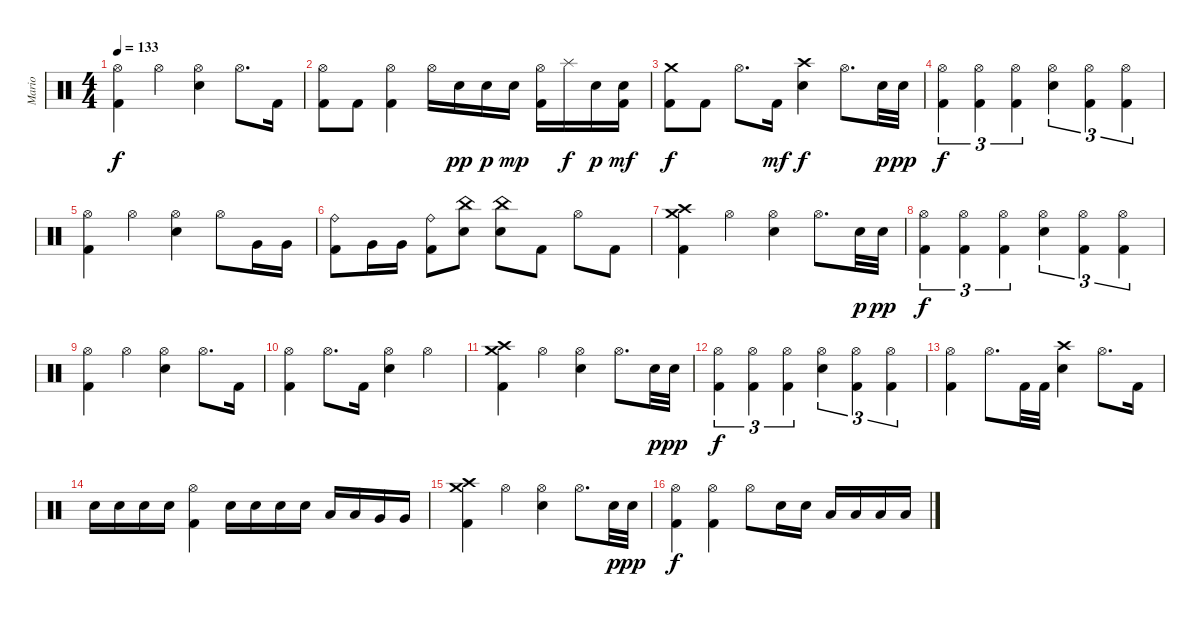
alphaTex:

\track ("Mario" "Mario") {instrument percussion}
\staff {score}
\articulation defaults
\ts (4 4)
\tempo 133
\clef neutral
\ks c
("Hi-Hat (open)" "Kick (hit) 2").4{dy f} "Hi-Hat (open)".4 ("Hi-Hat (open)" "Electric Snare (hit)").4 "Hi-Hat (open)".8{d} "Kick (hit) 2".16 |
("Hi-Hat (open)" "Kick (hit) 2").8 "Kick (hit) 2".8 ("Hi-Hat (open)" "Kick (hit) 2").4 "Hi-Hat (open)".16 "Electric Snare (hit)".16{dy pp} "Electric Snare (hit)".16{dy p} "Electric Snare (hit)".16{dy mp} ("Hi-Hat (open)" "Kick (hit) 2").16 "Splash (hit)".16{dy f} "Electric Snare (hit)".16{dy p} ("Electric Snare (hit)" "Kick (hit) 2").16{dy mf} |
("Crash medium (hit)" "Kick (hit) 2").8{dy f} "Kick (hit) 2".8 "Hi-Hat (open)".8{d} "Kick (hit) 2".16{dy mf} ("Crash high (hit)" "Electric Snare (hit)").4{dy f} "Hi-Hat (open)".8{d} "Electric Snare (hit)".32{dy p} "Electric Snare (hit)".32{dy pp} |
("Hi-Hat (open)" "Kick (hit) 2").4{tu (3 2) dy f} ("Hi-Hat (open)" "Kick (hit) 2").4{tu (3 2)} ("Hi-Hat (open)" "Kick (hit) 2").4{tu (3 2)} ("Hi-Hat (open)" "Electric Snare (hit)").4{tu (3 2)} ("Hi-Hat (open)" "Kick (hit) 2").4{tu (3 2)} ("Hi-Hat (open)" "Kick (hit) 2").4{tu (3 2)} |
("Hi-Hat (open)" "Kick (hit) 2").4 "Hi-Hat (open)".4 ("Hi-Hat (open)" "Electric Snare (hit)").4 "Hi-Hat (open)".8 "Very Low Tom (hit)".16 "Very Low Tom (hit)".16 |
("Ride (bell)" "Kick (hit) 2").8 "Very Low Tom (hit)".16 "Very Low Tom (hit)".16 ("Ride (bell)" "Kick (hit) 2").8 ("China (hit)" "Electric Snare (hit)").8 ("China (hit)" "Electric Snare (hit)").8 "Kick (hit) 2".8 "Hi-Hat (open)".8 "Kick (hit) 2".8 |
("Crash medium (hit)" "Crash high (hit)" "Kick (hit) 2").4 "Hi-Hat (open)".4 ("Hi-Hat (open)" "Electric Snare (hit)").4 "Hi-Hat (open)".8{d} "Electric Snare (hit)".32{dy p} "Electric Snare (hit)".32{dy pp} |
("Hi-Hat (open)" "Kick (hit) 2").4{tu (3 2) dy f} ("Hi-Hat (open)" "Kick (hit) 2").4{tu (3 2)} ("Hi-Hat (open)" "Kick (hit) 2").4{tu (3 2)} ("Hi-Hat (open)" "Electric Snare (hit)").4{tu (3 2)} ("Hi-Hat (open)" "Kick (hit) 2").4{tu (3 2)} ("Hi-Hat (open)" "Kick (hit) 2").4{tu (3 2)} |
("Hi-Hat (open)" "Kick (hit) 2").4 "Hi-Hat (open)".4 ("Hi-Hat (open)" "Electric Snare (hit)").4 "Hi-Hat (open)".8{d} "Kick (hit) 2".16 |
("Hi-Hat (open)" "Kick (hit) 2").4 "Hi-Hat (open)".8{d} "Kick (hit) 2".16 ("Hi-Hat (open)" "Electric Snare (hit)").4 "Hi-Hat (open)".4 |
("Crash medium (hit)" "Crash high (hit)" "Kick (hit) 2").4 "Hi-Hat (open)".4 ("Hi-Hat (open)" "Electric Snare (hit)").4 "Hi-Hat (open)".8{d} "Electric Snare (hit)".32{dy p} "Electric Snare (hit)".32{dy pp} |
("Hi-Hat (open)" "Kick (hit) 2").4{tu (3 2) dy f} ("Hi-Hat (open)" "Kick (hit) 2").4{tu (3 2)} ("Hi-Hat (open)" "Kick (hit) 2").4{tu (3 2)} ("Hi-Hat (open)" "Electric Snare (hit)").4{tu (3 2)} ("Hi-Hat (open)" "Kick (hit) 2").4{tu (3 2)} ("Hi-Hat (open)" "Kick (hit) 2").4{tu (3 2)} |
("Hi-Hat (open)" "Kick (hit) 2").4 "Hi-Hat (open)".8{d} "Kick (hit) 2".32 "Kick (hit) 2".32 ("Crash high (hit)" "Electric Snare (hit)").4 "Hi-Hat (open)".8{d} "Kick (hit) 2".16 |
"Electric Snare (hit)".16 "Electric Snare (hit)".16 "Electric Snare (hit)".16 "Electric Snare (hit)".16 ("Hi-Hat (open)" "Kick (hit) 2").4 "Electric Snare (hit)".16 "Electric Snare (hit)".16 "Electric Snare (hit)".16 "Electric Snare (hit)".16 "Low Tom (hit)".16 "Low Tom (hit)".16 "Very Low Tom (hit)".16 "Very Low Tom (hit)".16 |
("Crash medium (hit)" "Crash high (hit)" "Kick (hit) 2").4 "Hi-Hat (open)".4 ("Hi-Hat (open)" "Electric Snare (hit)").4 "Hi-Hat (open)".8{d} "Electric Snare (hit)".32{dy p} "Electric Snare (hit)".32{dy pp} |
("Hi-Hat (open)" "Kick (hit) 2").4{dy f} ("Hi-Hat (open)" "Kick (hit) 2").4 "Hi-Hat (open)".8 "Electric Snare (hit)".16 "Electric Snare (hit)".16 "Low Tom (hit)".16 "Low Tom (hit)".16 "Low Tom (hit)".16 "Low Tom (hit)".16
